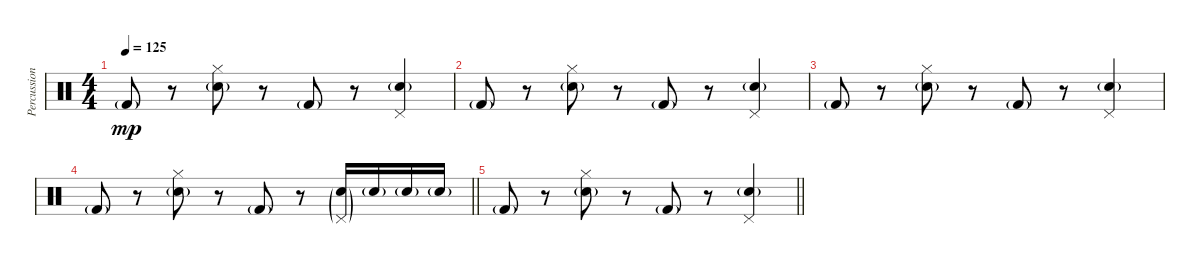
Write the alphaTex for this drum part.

\track ("Percussion" "Percussion") {instrument percussion}
\staff {score}
\articulation defaults
\ts (4 4)
\tempo 125
\clef neutral
\ks c "Kick (hit) 2"{g}.8{dy mp}
r.8 ("Electric Snare (hit)"{g} "Hi-Hat (closed)").8 r.8 "Kick (hit) 2"{g}.8 r.8 ("Electric Snare (hit)"{g} "Pedal Hi-Hat (hit)").4 |
"Kick (hit) 2"{g}.8 r.8 ("Electric Snare (hit)"{g} "Hi-Hat (closed)").8 r.8 "Kick (hit) 2"{g}.8 r.8 ("Electric Snare (hit)"{g} "Pedal Hi-Hat (hit)").4 |
"Kick (hit) 2"{g}.8 r.8 ("Electric Snare (hit)"{g} "Hi-Hat (closed)").8 r.8 "Kick (hit) 2"{g}.8 r.8 ("Electric Snare (hit)"{g} "Pedal Hi-Hat (hit)").4 |
\barLineRight lightlight "Kick (hit) 2"{g}.8
r.8 ("Electric Snare (hit)"{g} "Hi-Hat (closed)").8 r.8 "Kick (hit) 2"{g}.8 r.8 ("Electric Snare (hit)"{g} "Pedal Hi-Hat (hit)"{g}).16 "Electric Snare (hit)"{g}.16 "Electric Snare (hit)"{g}.16 "Electric Snare (hit)"{g}.16 |
\barLineRight lightlight "Kick (hit) 2"{g}.8
r.8 ("Electric Snare (hit)"{g} "Hi-Hat (closed)").8 r.8 "Kick (hit) 2"{g}.8 r.8 ("Electric Snare (hit)"{g} "Pedal Hi-Hat (hit)").4
